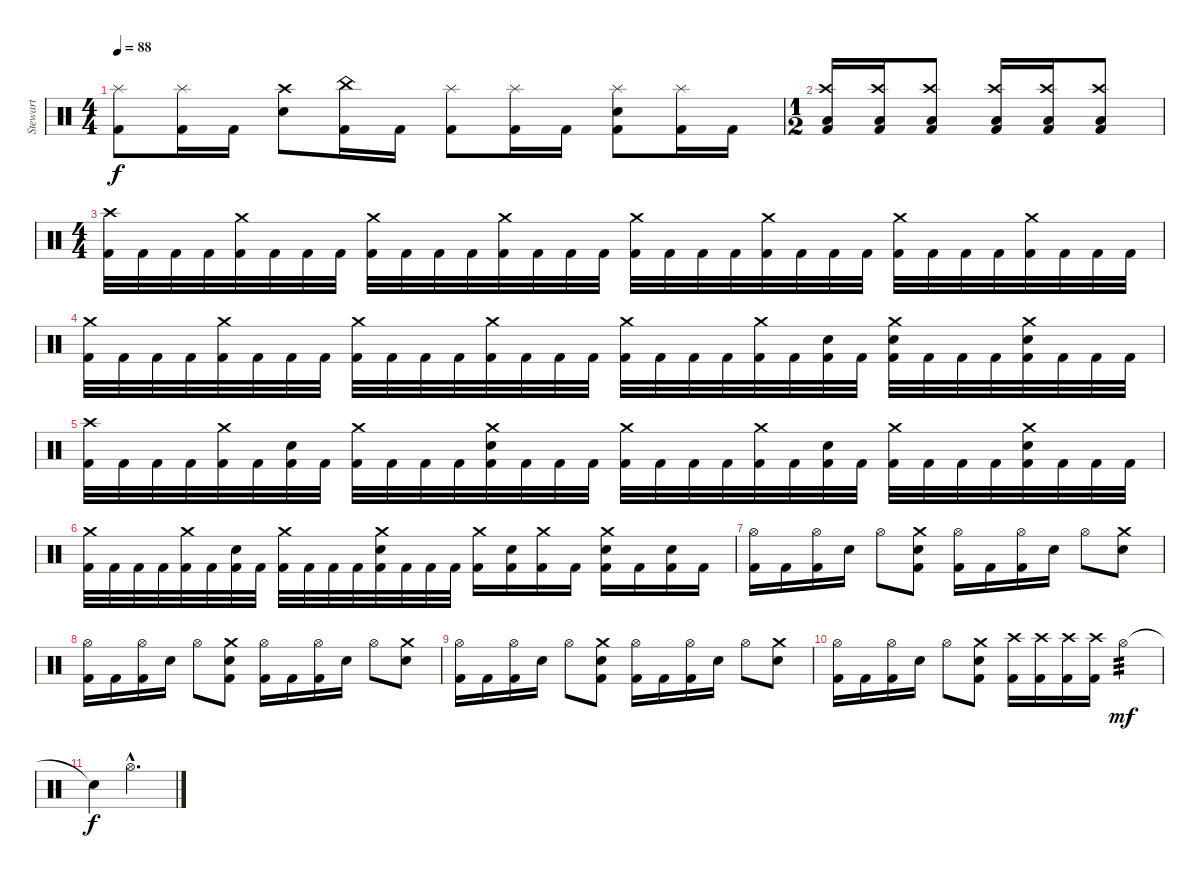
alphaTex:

\track ("Stewart" "Stewart") {instrument percussion}
\staff {score}
\articulation defaults
\ts (4 4)
\tempo 88
\clef neutral
\ks c
("Splash (hit)" "Kick (hit) 2").8{dy f} ("Splash (hit)" "Kick (hit) 2").16 "Kick (hit) 2".16 ("Crash high (hit)" "Electric Snare (hit)").8 ("China (hit)" "Kick (hit) 2").16 "Kick (hit) 2".16 ("Splash (hit)" "Kick (hit) 2").8 ("Splash (hit)" "Kick (hit) 2").16 "Kick (hit) 2".16 ("Splash (hit)" "Electric Snare (hit)" "Kick (hit) 2").8 ("Splash (hit)" "Kick (hit) 2").16 "Kick (hit) 2".16 |
\ts (1 2)
("Low Tom (hit)" "Crash high (hit)" "Kick (hit) 2").16 ("Low Tom (hit)" "Crash high (hit)" "Kick (hit) 2").16 ("Low Tom (hit)" "Crash high (hit)" "Kick (hit) 2").8 ("Low Tom (hit)" "Crash high (hit)" "Kick (hit) 2").16 ("Low Tom (hit)" "Crash high (hit)" "Kick (hit) 2").16 ("Low Tom (hit)" "Crash high (hit)" "Kick (hit) 2").8 |
\ts (4 4)
("Crash high (hit)" "Kick (hit) 2").32 "Kick (hit) 2".32 "Kick (hit) 2".32 "Kick (hit) 2".32 ("Crash medium (hit)" "Kick (hit) 2").32 "Kick (hit) 2".32 "Kick (hit) 2".32 "Kick (hit) 2".32 ("Crash medium (hit)" "Kick (hit) 2").32 "Kick (hit) 2".32 "Kick (hit) 2".32 "Kick (hit) 2".32 ("Crash medium (hit)" "Kick (hit) 2").32 "Kick (hit) 2".32 "Kick (hit) 2".32 "Kick (hit) 2".32 ("Crash medium (hit)" "Kick (hit) 2").32 "Kick (hit) 2".32 "Kick (hit) 2".32 "Kick (hit) 2".32 ("Crash medium (hit)" "Kick (hit) 2").32 "Kick (hit) 2".32 "Kick (hit) 2".32 "Kick (hit) 2".32 ("Crash medium (hit)" "Kick (hit) 2").32 "Kick (hit) 2".32 "Kick (hit) 2".32 "Kick (hit) 2".32 ("Crash medium (hit)" "Kick (hit) 2").32 "Kick (hit) 2".32 "Kick (hit) 2".32 "Kick (hit) 2".32 |
("Crash medium (hit)" "Kick (hit) 2").32 "Kick (hit) 2".32 "Kick (hit) 2".32 "Kick (hit) 2".32 ("Crash medium (hit)" "Kick (hit) 2").32 "Kick (hit) 2".32 "Kick (hit) 2".32 "Kick (hit) 2".32 ("Crash medium (hit)" "Kick (hit) 2").32 "Kick (hit) 2".32 "Kick (hit) 2".32 "Kick (hit) 2".32 ("Crash medium (hit)" "Kick (hit) 2").32 "Kick (hit) 2".32 "Kick (hit) 2".32 "Kick (hit) 2".32 ("Crash medium (hit)" "Kick (hit) 2").32 "Kick (hit) 2".32 "Kick (hit) 2".32 "Kick (hit) 2".32 ("Crash medium (hit)" "Kick (hit) 2").32 "Kick (hit) 2".32 ("Electric Snare (hit)" "Kick (hit) 2").32 "Kick (hit) 2".32 ("Crash medium (hit)" "Electric Snare (hit)" "Kick (hit) 2").32 "Kick (hit) 2".32 "Kick (hit) 2".32 "Kick (hit) 2".32 ("Crash medium (hit)" "Electric Snare (hit)" "Kick (hit) 2").32 "Kick (hit) 2".32 "Kick (hit) 2".32 "Kick (hit) 2".32 |
("Crash high (hit)" "Kick (hit) 2").32 "Kick (hit) 2".32 "Kick (hit) 2".32 "Kick (hit) 2".32 ("Crash medium (hit)" "Kick (hit) 2").32 "Kick (hit) 2".32 ("Electric Snare (hit)" "Kick (hit) 2").32 "Kick (hit) 2".32 ("Crash medium (hit)" "Kick (hit) 2").32 "Kick (hit) 2".32 "Kick (hit) 2".32 "Kick (hit) 2".32 ("Crash medium (hit)" "Electric Snare (hit)" "Kick (hit) 2").32 "Kick (hit) 2".32 "Kick (hit) 2".32 "Kick (hit) 2".32 ("Crash medium (hit)" "Kick (hit) 2").32 "Kick (hit) 2".32 "Kick (hit) 2".32 "Kick (hit) 2".32 ("Crash medium (hit)" "Kick (hit) 2").32 "Kick (hit) 2".32 ("Electric Snare (hit)" "Kick (hit) 2").32 "Kick (hit) 2".32 ("Crash medium (hit)" "Kick (hit) 2").32 "Kick (hit) 2".32 "Kick (hit) 2".32 "Kick (hit) 2".32 ("Crash medium (hit)" "Electric Snare (hit)" "Kick (hit) 2").32 "Kick (hit) 2".32 "Kick (hit) 2".32 "Kick (hit) 2".32 |
("Crash medium (hit)" "Kick (hit) 2").32 "Kick (hit) 2".32 "Kick (hit) 2".32 "Kick (hit) 2".32 ("Crash medium (hit)" "Kick (hit) 2").32 "Kick (hit) 2".32 ("Electric Snare (hit)" "Kick (hit) 2").32 "Kick (hit) 2".32 ("Crash medium (hit)" "Kick (hit) 2").32 "Kick (hit) 2".32 "Kick (hit) 2".32 "Kick (hit) 2".32 ("Crash medium (hit)" "Electric Snare (hit)" "Kick (hit) 2").32 "Kick (hit) 2".32 "Kick (hit) 2".32 "Kick (hit) 2".32 ("Crash medium (hit)" "Kick (hit) 2").16 ("Electric Snare (hit)" "Kick (hit) 2").16 ("Crash medium (hit)" "Kick (hit) 2").16 "Kick (hit) 2".16 ("Crash medium (hit)" "Electric Snare (hit)" "Kick (hit) 2").16 "Kick (hit) 2".16 ("Electric Snare (hit)" "Kick (hit) 2").16 "Kick (hit) 2".16 |
("Hi-Hat (open)" "Kick (hit) 2").16 "Kick (hit) 2".16 ("Hi-Hat (open)" "Kick (hit) 2").16 "Electric Snare (hit)".16 "Hi-Hat (open)".8 ("Crash medium (hit)" "Electric Snare (hit)" "Kick (hit) 2").8 ("Hi-Hat (open)" "Kick (hit) 2").16 "Kick (hit) 2".16 ("Hi-Hat (open)" "Kick (hit) 2").16 "Electric Snare (hit)".16 "Hi-Hat (open)".8 ("Crash medium (hit)" "Electric Snare (hit)").8 |
("Hi-Hat (open)" "Kick (hit) 2").16 "Kick (hit) 2".16 ("Hi-Hat (open)" "Kick (hit) 2").16 "Electric Snare (hit)".16 "Hi-Hat (open)".8 ("Crash medium (hit)" "Electric Snare (hit)" "Kick (hit) 2").8 ("Hi-Hat (open)" "Kick (hit) 2").16 "Kick (hit) 2".16 ("Hi-Hat (open)" "Kick (hit) 2").16 "Electric Snare (hit)".16 "Hi-Hat (open)".8 ("Crash medium (hit)" "Electric Snare (hit)").8 |
("Hi-Hat (open)" "Kick (hit) 2").16 "Kick (hit) 2".16 ("Hi-Hat (open)" "Kick (hit) 2").16 "Electric Snare (hit)".16 "Hi-Hat (open)".8 ("Crash medium (hit)" "Electric Snare (hit)" "Kick (hit) 2").8 ("Hi-Hat (open)" "Kick (hit) 2").16 "Kick (hit) 2".16 ("Hi-Hat (open)" "Kick (hit) 2").16 "Electric Snare (hit)".16 "Hi-Hat (open)".8 ("Crash medium (hit)" "Electric Snare (hit)").8 |
("Hi-Hat (open)" "Kick (hit) 2").16 "Kick (hit) 2".16 ("Hi-Hat (open)" "Kick (hit) 2").16 "Electric Snare (hit)".16 "Hi-Hat (open)".8 ("Crash medium (hit)" "Electric Snare (hit)" "Kick (hit) 2").8 ("Crash high (hit)" "Kick (hit) 2").16 ("Crash high (hit)" "Kick (hit) 2").16 ("Crash high (hit)" "Kick (hit) 2").16 ("Crash high (hit)" "Kick (hit) 2").16 "Hi-Hat (open)".4{tp 3 dy mf} |
"Snare (hit)"{t}.4{dy f} "Hi-Hat (open)"{hac}.2{d volume 0}
